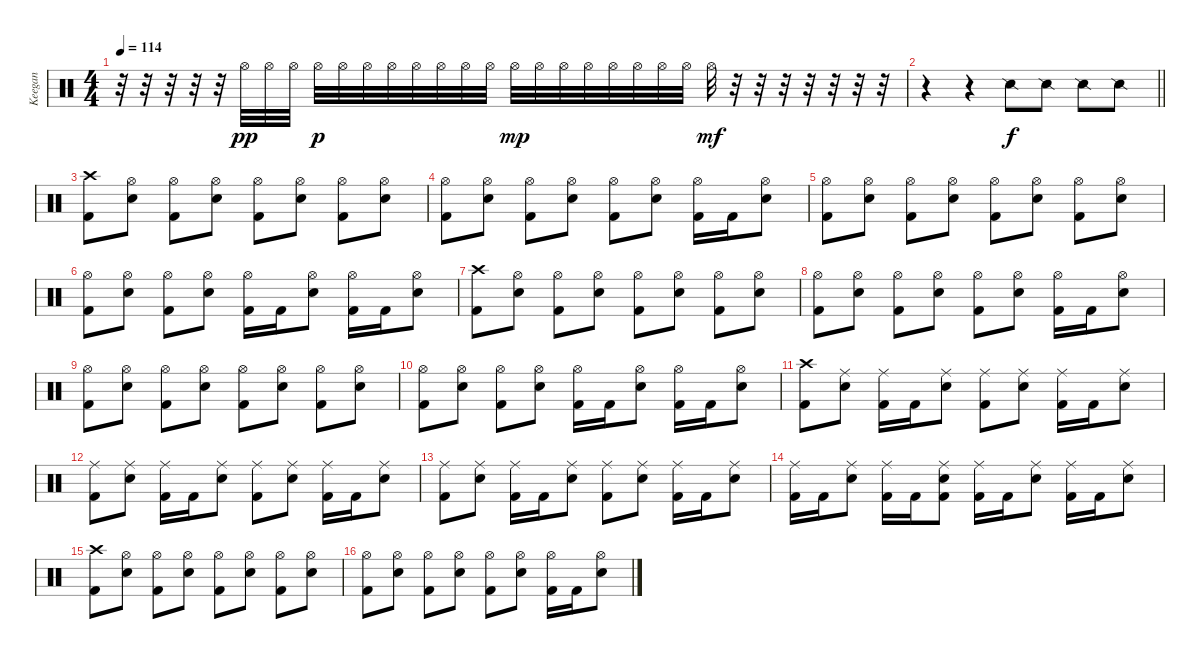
\track ("Keegan" "Keegan") {instrument percussion}
\staff {score}
\articulation defaults
\ts (4 4)
\tempo 114
\clef neutral
\ks c
r.32{dy f} r.32 r.32 r.32 r.32 "Hi-Hat (open)".32{dy pp} "Hi-Hat (open)".32 "Hi-Hat (open)".32 "Hi-Hat (open)".32{dy p} "Hi-Hat (open)".32 "Hi-Hat (open)".32 "Hi-Hat (open)".32 "Hi-Hat (open)".32 "Hi-Hat (open)".32 "Hi-Hat (open)".32 "Hi-Hat (open)".32 "Hi-Hat (open)".32{dy mp} "Hi-Hat (open)".32 "Hi-Hat (open)".32 "Hi-Hat (open)".32 "Hi-Hat (open)".32 "Hi-Hat (open)".32 "Hi-Hat (open)".32 "Hi-Hat (open)".32 "Hi-Hat (open)".32{dy mf} r.32 r.32 r.32 r.32 r.32 r.32 r.32 |
\barLineRight lightlight
r.4 r.4 "Snare (side stick) 2".8{dy f} "Snare (side stick) 2".8 "Snare (side stick) 2".8 "Snare (side stick) 2".8 |
("Crash high (hit)" "Kick (hit) 2").8 ("Hi-Hat (open)" "Electric Snare (hit)").8 ("Hi-Hat (open)" "Kick (hit) 2").8 ("Hi-Hat (open)" "Electric Snare (hit)").8 ("Hi-Hat (open)" "Kick (hit) 2").8 ("Hi-Hat (open)" "Electric Snare (hit)").8 ("Hi-Hat (open)" "Kick (hit) 2").8 ("Hi-Hat (open)" "Electric Snare (hit)").8 |
("Hi-Hat (open)" "Kick (hit) 2").8 ("Hi-Hat (open)" "Electric Snare (hit)").8 ("Hi-Hat (open)" "Kick (hit) 2").8 ("Hi-Hat (open)" "Electric Snare (hit)").8 ("Hi-Hat (open)" "Kick (hit) 2").8 ("Hi-Hat (open)" "Electric Snare (hit)").8 ("Hi-Hat (open)" "Kick (hit) 2").16 "Kick (hit) 2".16 ("Hi-Hat (open)" "Electric Snare (hit)").8 |
("Hi-Hat (open)" "Kick (hit) 2").8 ("Hi-Hat (open)" "Electric Snare (hit)").8 ("Hi-Hat (open)" "Kick (hit) 2").8 ("Hi-Hat (open)" "Electric Snare (hit)").8 ("Hi-Hat (open)" "Kick (hit) 2").8 ("Hi-Hat (open)" "Electric Snare (hit)").8 ("Hi-Hat (open)" "Kick (hit) 2").8 ("Hi-Hat (open)" "Electric Snare (hit)").8 |
("Hi-Hat (open)" "Kick (hit) 2").8 ("Hi-Hat (open)" "Electric Snare (hit)").8 ("Hi-Hat (open)" "Kick (hit) 2").8 ("Hi-Hat (open)" "Electric Snare (hit)").8 ("Hi-Hat (open)" "Kick (hit) 2").16 "Kick (hit) 2".16 ("Hi-Hat (open)" "Electric Snare (hit)").8 ("Hi-Hat (open)" "Kick (hit) 2").16 "Kick (hit) 2".16 ("Hi-Hat (open)" "Electric Snare (hit)").8 |
("Crash high (hit)" "Kick (hit) 2").8 ("Hi-Hat (open)" "Electric Snare (hit)").8 ("Hi-Hat (open)" "Kick (hit) 2").8 ("Hi-Hat (open)" "Electric Snare (hit)").8 ("Hi-Hat (open)" "Kick (hit) 2").8 ("Hi-Hat (open)" "Electric Snare (hit)").8 ("Hi-Hat (open)" "Kick (hit) 2").8 ("Hi-Hat (open)" "Electric Snare (hit)").8 |
("Hi-Hat (open)" "Kick (hit) 2").8 ("Hi-Hat (open)" "Electric Snare (hit)").8 ("Hi-Hat (open)" "Kick (hit) 2").8 ("Hi-Hat (open)" "Electric Snare (hit)").8 ("Hi-Hat (open)" "Kick (hit) 2").8 ("Hi-Hat (open)" "Electric Snare (hit)").8 ("Hi-Hat (open)" "Kick (hit) 2").16 "Kick (hit) 2".16 ("Hi-Hat (open)" "Electric Snare (hit)").8 |
("Hi-Hat (open)" "Kick (hit) 2").8 ("Hi-Hat (open)" "Electric Snare (hit)").8 ("Hi-Hat (open)" "Kick (hit) 2").8 ("Hi-Hat (open)" "Electric Snare (hit)").8 ("Hi-Hat (open)" "Kick (hit) 2").8 ("Hi-Hat (open)" "Electric Snare (hit)").8 ("Hi-Hat (open)" "Kick (hit) 2").8 ("Hi-Hat (open)" "Electric Snare (hit)").8 |
("Hi-Hat (open)" "Kick (hit) 2").8 ("Hi-Hat (open)" "Electric Snare (hit)").8 ("Hi-Hat (open)" "Kick (hit) 2").8 ("Hi-Hat (open)" "Electric Snare (hit)").8 ("Hi-Hat (open)" "Kick (hit) 2").16 "Kick (hit) 2".16 ("Hi-Hat (open)" "Electric Snare (hit)").8 ("Hi-Hat (open)" "Kick (hit) 2").16 "Kick (hit) 2".16 ("Hi-Hat (open)" "Electric Snare (hit)").8 |
("Crash high (hit)" "Kick (hit) 2").8 ("Ride (middle)" "Electric Snare (hit)").8 ("Ride (middle)" "Kick (hit) 2").16 "Kick (hit) 2".16 ("Ride (middle)" "Electric Snare (hit)").8 ("Ride (middle)" "Kick (hit) 2").8 ("Ride (middle)" "Electric Snare (hit)").8 ("Ride (middle)" "Kick (hit) 2").16 "Kick (hit) 2".16 ("Ride (middle)" "Electric Snare (hit)").8 |
("Ride (middle)" "Kick (hit) 2").8 ("Ride (middle)" "Electric Snare (hit)").8 ("Ride (middle)" "Kick (hit) 2").16 "Kick (hit) 2".16 ("Ride (middle)" "Electric Snare (hit)").8 ("Ride (middle)" "Kick (hit) 2").8 ("Ride (middle)" "Electric Snare (hit)").8 ("Ride (middle)" "Kick (hit) 2").16 "Kick (hit) 2".16 ("Ride (middle)" "Electric Snare (hit)").8 |
("Ride (middle)" "Kick (hit) 2").8 ("Ride (middle)" "Electric Snare (hit)").8 ("Ride (middle)" "Kick (hit) 2").16 "Kick (hit) 2".16 ("Ride (middle)" "Electric Snare (hit)").8 ("Ride (middle)" "Kick (hit) 2").8 ("Ride (middle)" "Electric Snare (hit)").8 ("Ride (middle)" "Kick (hit) 2").16 "Kick (hit) 2".16 ("Ride (middle)" "Electric Snare (hit)").8 |
("Ride (middle)" "Kick (hit) 2").16 "Kick (hit) 2".16 ("Ride (middle)" "Electric Snare (hit)").8 ("Ride (middle)" "Kick (hit) 2").16 "Kick (hit) 2".16 ("Ride (middle)" "Electric Snare (hit)" "Kick (hit) 2").8 ("Ride (middle)" "Kick (hit) 2").16 "Kick (hit) 2".16 ("Ride (middle)" "Electric Snare (hit)").8 ("Ride (middle)" "Kick (hit) 2").16 "Kick (hit) 2".16 ("Ride (middle)" "Electric Snare (hit)").8 |
("Crash high (hit)" "Kick (hit) 2").8 ("Hi-Hat (open)" "Electric Snare (hit)").8 ("Hi-Hat (open)" "Kick (hit) 2").8 ("Hi-Hat (open)" "Electric Snare (hit)").8 ("Hi-Hat (open)" "Kick (hit) 2").8 ("Hi-Hat (open)" "Electric Snare (hit)").8 ("Hi-Hat (open)" "Kick (hit) 2").8 ("Hi-Hat (open)" "Electric Snare (hit)").8 |
("Hi-Hat (open)" "Kick (hit) 2").8 ("Hi-Hat (open)" "Electric Snare (hit)").8 ("Hi-Hat (open)" "Kick (hit) 2").8 ("Hi-Hat (open)" "Electric Snare (hit)").8 ("Hi-Hat (open)" "Kick (hit) 2").8 ("Hi-Hat (open)" "Electric Snare (hit)").8 ("Hi-Hat (open)" "Kick (hit) 2").16 "Kick (hit) 2".16 ("Hi-Hat (open)" "Electric Snare (hit)").8
